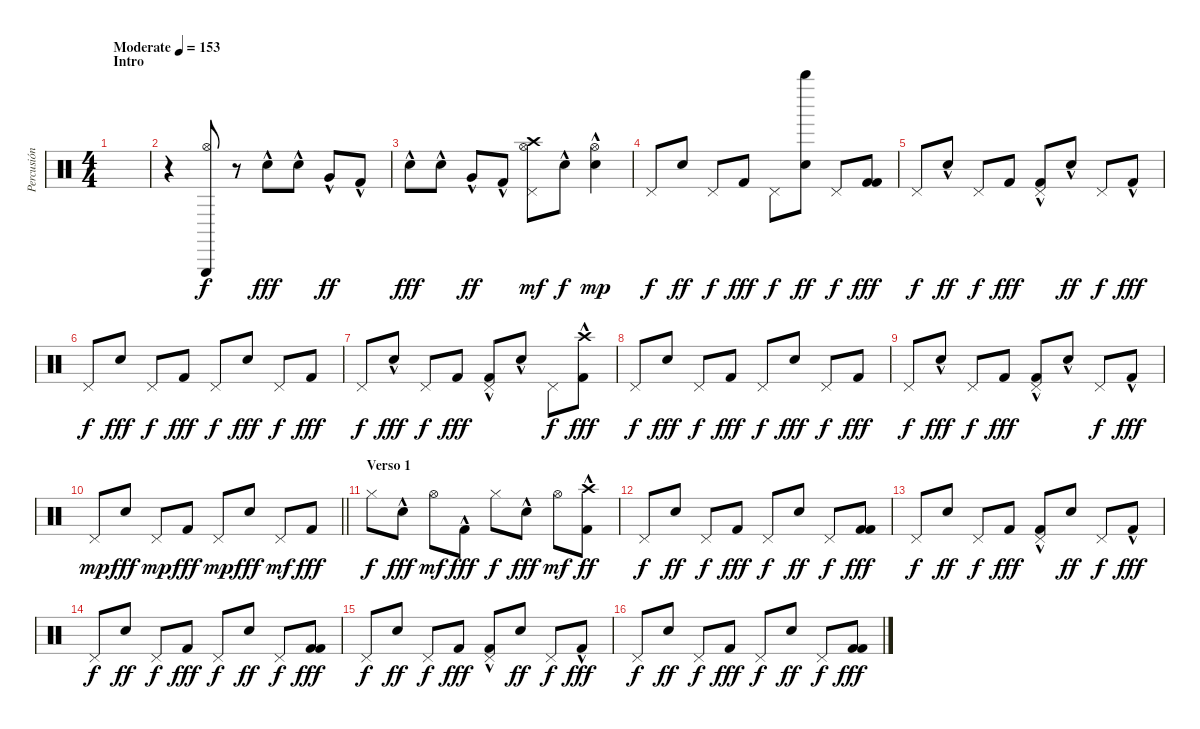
\track ("Percusión (Javi Molina)" "Percusión ") {instrument percussion}
\staff {score}
\articulation defaults
\ts (4 4)
\section ("" "Intro")
\tempo (153 "Moderate")
\clef neutral
\ks c
|
r.4 ("Hi-Hat (open)" "Triangle (hit)").8 r.8 "Electric Snare (hit)"{hac}.8{dy fff} "Electric Snare (hit)"{hac}.8 "Very Low Tom (hit)"{hac}.8{dy ff} "Kick (hit) 2"{hac}.8 |
"Electric Snare (hit)"{hac}.8{dy fff} "Electric Snare (hit)"{hac}.8 "Very Low Tom (hit)"{hac}.8{dy ff} "Kick (hit) 2"{hac}.8 ("Crash high (hit)" "Pedal Hi-Hat (hit)" "Hi-Hat (open)").8{dy mf} "Electric Snare (hit)"{hac}.8{dy f} ("Electric Snare (hit)"{hac} "Hi-Hat (open)").4{dy mp} |
"Pedal Hi-Hat (hit)".8{dy f} "Electric Snare (hit)".8{dy ff} "Pedal Hi-Hat (hit)".8{dy f} "Kick (hit) 2".8{dy fff} "Pedal Hi-Hat (hit)".8{dy f} ("Electric Snare (hit)" "Whistle high (hit)").8{dy ff} "Pedal Hi-Hat (hit)".8{dy f} ("Kick (hit) 2" "Kick (hit) 2").8{dy fff} |
"Pedal Hi-Hat (hit)".8{dy f} "Electric Snare (hit)"{hac}.8{dy ff} "Pedal Hi-Hat (hit)".8{dy f} "Kick (hit) 2".8{dy fff} ("Pedal Hi-Hat (hit)" "Kick (hit) 2"{hac}).8 "Electric Snare (hit)"{hac}.8{dy ff} "Pedal Hi-Hat (hit)".8{dy f} "Kick (hit) 2"{hac}.8{dy fff} |
"Pedal Hi-Hat (hit)".8{dy f} "Electric Snare (hit)".8{dy fff} "Pedal Hi-Hat (hit)".8{dy f} "Kick (hit) 2".8{dy fff} "Pedal Hi-Hat (hit)".8{dy f} "Electric Snare (hit)".8{dy fff} "Pedal Hi-Hat (hit)".8{dy f} "Kick (hit) 2".8{dy fff} |
"Pedal Hi-Hat (hit)".8{dy f} "Electric Snare (hit)"{hac}.8{dy fff} "Pedal Hi-Hat (hit)".8{dy f} "Kick (hit) 2".8{dy fff} ("Pedal Hi-Hat (hit)" "Kick (hit) 2"{hac}).8 "Electric Snare (hit)"{hac}.8 "Pedal Hi-Hat (hit)".8{dy f} ("Kick (hit) 2"{hac} "Crash high (hit)").8{dy fff} |
"Pedal Hi-Hat (hit)".8{dy f} "Electric Snare (hit)".8{dy fff} "Pedal Hi-Hat (hit)".8{dy f} "Kick (hit) 2".8{dy fff} "Pedal Hi-Hat (hit)".8{dy f} "Electric Snare (hit)".8{dy fff} "Pedal Hi-Hat (hit)".8{dy f} "Kick (hit) 2".8{dy fff} |
"Pedal Hi-Hat (hit)".8{dy f} "Electric Snare (hit)"{hac}.8{dy fff} "Pedal Hi-Hat (hit)".8{dy f} "Kick (hit) 2".8{dy fff} ("Pedal Hi-Hat (hit)" "Kick (hit) 2"{hac}).8 "Electric Snare (hit)"{hac}.8 "Pedal Hi-Hat (hit)".8{dy f} "Kick (hit) 2"{hac}.8{dy fff} |
\barLineRight lightlight "Pedal Hi-Hat (hit)".8{dy mp} "Electric Snare (hit)".8{dy fff} "Pedal Hi-Hat (hit)".8{dy mp} "Kick (hit) 2".8{dy fff} "Pedal Hi-Hat (hit)".8{dy mp} "Electric Snare (hit)".8{dy fff} "Pedal Hi-Hat (hit)".8{dy mf} "Kick (hit) 2".8{dy fff}
|
\section ("" "Verso 1")
"Hi-Hat (closed)".8{dy f} "Snare (hit) 2"{hac}.8{dy fff} "Hi-Hat (open)".8{dy mf} "Kick (hit) 2"{hac}.8{dy fff} "Hi-Hat (closed)".8{dy f} "Snare (hit) 2"{hac}.8{dy fff} "Hi-Hat (open)".8{dy mf} ("Kick (hit) 2"{hac} "Crash high (hit)").8{dy ff} |
"Pedal Hi-Hat (hit)".8{dy f} "Electric Snare (hit)".8{dy ff} "Pedal Hi-Hat (hit)".8{dy f} "Kick (hit) 2".8{dy fff} "Pedal Hi-Hat (hit)".8{dy f} "Electric Snare (hit)".8{dy ff} "Pedal Hi-Hat (hit)".8{dy f} ("Kick (hit) 2" "Kick (hit) 2").8{dy fff} |
"Pedal Hi-Hat (hit)".8{dy f} "Electric Snare (hit)".8{dy ff} "Pedal Hi-Hat (hit)".8{dy f} "Kick (hit) 2".8{dy fff} ("Pedal Hi-Hat (hit)" "Kick (hit) 2"{hac}).8 "Electric Snare (hit)".8{dy ff} "Pedal Hi-Hat (hit)".8{dy f} "Kick (hit) 2"{hac}.8{dy fff} |
"Pedal Hi-Hat (hit)".8{dy f} "Electric Snare (hit)".8{dy ff} "Pedal Hi-Hat (hit)".8{dy f} "Kick (hit) 2".8{dy fff} "Pedal Hi-Hat (hit)".8{dy f} "Electric Snare (hit)".8{dy ff} "Pedal Hi-Hat (hit)".8{dy f} ("Kick (hit) 2" "Kick (hit) 2").8{dy fff} |
"Pedal Hi-Hat (hit)".8{dy f} "Electric Snare (hit)".8{dy ff} "Pedal Hi-Hat (hit)".8{dy f} "Kick (hit) 2".8{dy fff} ("Pedal Hi-Hat (hit)" "Kick (hit) 2"{hac}).8 "Electric Snare (hit)".8{dy ff} "Pedal Hi-Hat (hit)".8{dy f} "Kick (hit) 2"{hac}.8{dy fff} |
"Pedal Hi-Hat (hit)".8{dy f} "Electric Snare (hit)".8{dy ff} "Pedal Hi-Hat (hit)".8{dy f} "Kick (hit) 2".8{dy fff} "Pedal Hi-Hat (hit)".8{dy f} "Electric Snare (hit)".8{dy ff} "Pedal Hi-Hat (hit)".8{dy f} ("Kick (hit) 2" "Kick (hit) 2").8{dy fff}
